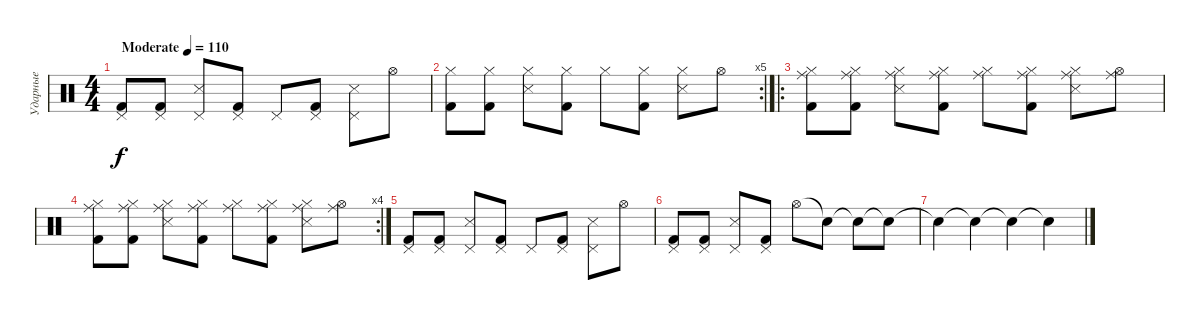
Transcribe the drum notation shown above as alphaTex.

\track ("Ударные" "Ударные") {solo instrument percussion}
\staff {score}
\articulation defaults
\ts (4 4)
\tempo (110 "Moderate")
\clef neutral
\ks c
("Pedal Hi-Hat (hit)" "Kick (hit) 2").8{dy f} ("Pedal Hi-Hat (hit)" "Kick (hit) 2").8 ("Pedal Hi-Hat (hit)" "Snare (side stick) 3").8 ("Pedal Hi-Hat (hit)" "Kick (hit) 2").8 "Pedal Hi-Hat (hit)".8 ("Pedal Hi-Hat (hit)" "Kick (hit) 2").8 ("Pedal Hi-Hat (hit)" "Snare (side stick) 3").8 "Hi-Hat (open)".8 |
\rc 5
("Hi-Hat (closed)" "Kick (hit) 2").8 ("Hi-Hat (closed)" "Kick (hit) 2").8 ("Hi-Hat (closed)" "Snare (side stick) 3").8 ("Hi-Hat (closed)" "Kick (hit) 2").8 "Hi-Hat (closed)".8 ("Hi-Hat (closed)" "Kick (hit) 2").8 ("Hi-Hat (closed)" "Snare (side stick) 3").8 "Hi-Hat (open)".8 |
\ro
("Hi-Hat (closed)" "Ride (middle)" "Kick (hit) 2").8 ("Hi-Hat (closed)" "Ride (middle)" "Kick (hit) 2").8 ("Hi-Hat (closed)" "Ride (middle)" "Snare (side stick) 3").8 ("Hi-Hat (closed)" "Ride (middle)" "Kick (hit) 2").8 ("Hi-Hat (closed)" "Ride (middle)").8 ("Hi-Hat (closed)" "Ride (middle)" "Kick (hit) 2").8 ("Hi-Hat (closed)" "Ride (middle)" "Snare (side stick) 3").8 ("Hi-Hat (open)" "Ride (middle)").8 |
\rc 4
("Hi-Hat (closed)" "Ride (middle)" "Kick (hit) 2").8 ("Hi-Hat (closed)" "Ride (middle)" "Kick (hit) 2").8 ("Hi-Hat (closed)" "Ride (middle)" "Snare (side stick) 3").8 ("Hi-Hat (closed)" "Ride (middle)" "Kick (hit) 2").8 ("Hi-Hat (closed)" "Ride (middle)").8 ("Hi-Hat (closed)" "Ride (middle)" "Kick (hit) 2").8 ("Hi-Hat (closed)" "Ride (middle)" "Snare (side stick) 3").8 ("Hi-Hat (open)" "Ride (middle)").8 |
("Pedal Hi-Hat (hit)" "Kick (hit) 2").8 ("Pedal Hi-Hat (hit)" "Kick (hit) 2").8 ("Pedal Hi-Hat (hit)" "Snare (side stick) 3").8 ("Pedal Hi-Hat (hit)" "Kick (hit) 2").8 "Pedal Hi-Hat (hit)".8 ("Pedal Hi-Hat (hit)" "Kick (hit) 2").8 ("Pedal Hi-Hat (hit)" "Snare (side stick) 3").8 "Hi-Hat (open)".8 |
("Pedal Hi-Hat (hit)" "Kick (hit) 2").8 ("Pedal Hi-Hat (hit)" "Kick (hit) 2").8 ("Pedal Hi-Hat (hit)" "Snare (side stick) 3").8 ("Pedal Hi-Hat (hit)" "Kick (hit) 2").8 "Hi-Hat (open)".8 "Snare (hit)"{t}.8 "Snare (hit)"{t}.8 "Snare (hit)"{t}.8 |
"Snare (hit)"{t}.4 "Snare (hit)"{t}.4 "Snare (hit)"{t}.4 "Snare (hit)"{t}.4
